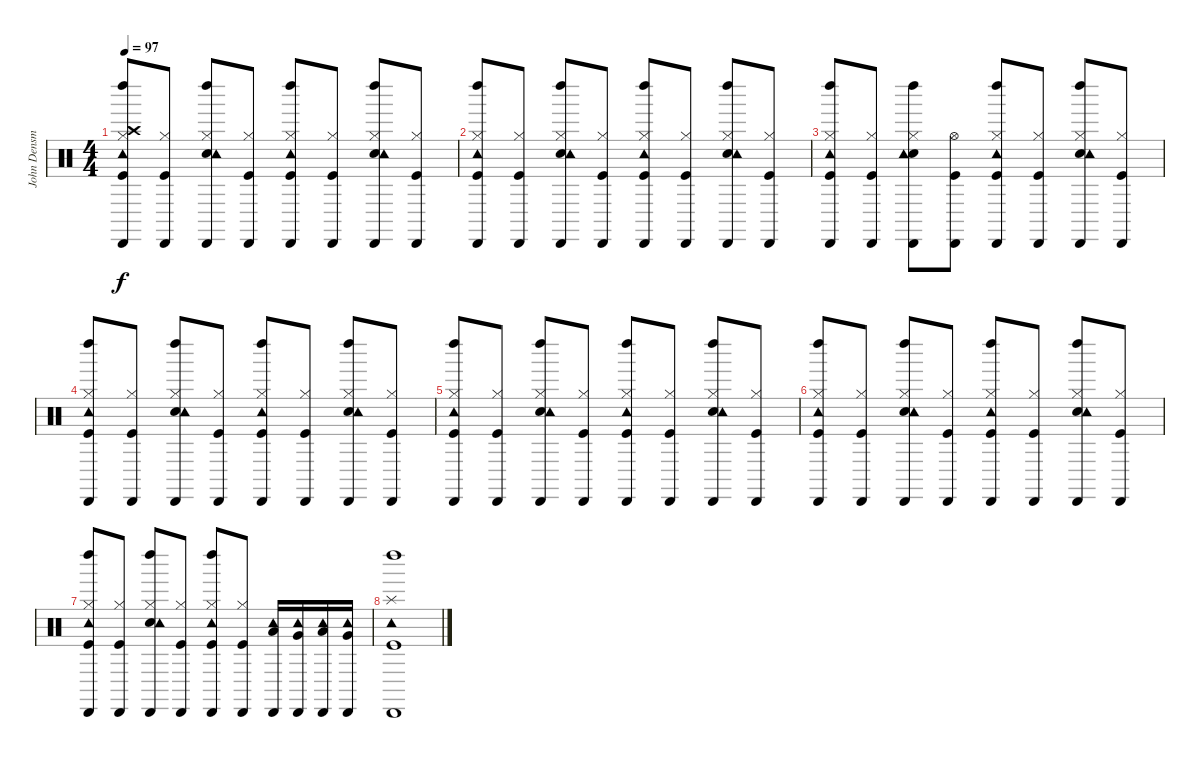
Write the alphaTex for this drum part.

\track ("John Densmore" "John Densm") {instrument percussion}
\staff {score}
\articulation defaults
\ts (4 4)
\tempo 97
\clef neutral
\ks c
("Kick (hit)" "Hi-Hat (closed)" "Crash high (hit)" "Tambourine (hit)" "Left Maraca (hit)" "Cabasa (hit)").8{dy f} ("Kick (hit)" "Hi-Hat (closed)" "Cabasa (hit)").8 ("Snare (hit) 2" "Hi-Hat (closed)" "Tambourine (hit)" "Left Maraca (hit)" "Cabasa (hit)").8 ("Kick (hit)" "Hi-Hat (closed)" "Cabasa (hit)").8 ("Kick (hit)" "Hi-Hat (closed)" "Tambourine (hit)" "Left Maraca (hit)" "Cabasa (hit)").8 ("Kick (hit)" "Hi-Hat (closed)" "Cabasa (hit)").8 ("Snare (hit) 2" "Hi-Hat (closed)" "Tambourine (hit)" "Left Maraca (hit)" "Cabasa (hit)").8 ("Kick (hit)" "Hi-Hat (closed)" "Cabasa (hit)").8 |
("Kick (hit)" "Hi-Hat (closed)" "Tambourine (hit)" "Left Maraca (hit)" "Cabasa (hit)").8 ("Kick (hit)" "Hi-Hat (closed)" "Cabasa (hit)").8 ("Snare (hit) 2" "Hi-Hat (closed)" "Tambourine (hit)" "Left Maraca (hit)" "Cabasa (hit)").8 ("Kick (hit)" "Hi-Hat (closed)" "Cabasa (hit)").8 ("Kick (hit)" "Hi-Hat (closed)" "Tambourine (hit)" "Left Maraca (hit)" "Cabasa (hit)").8 ("Kick (hit)" "Hi-Hat (closed)" "Cabasa (hit)").8 ("Snare (hit) 2" "Hi-Hat (closed)" "Tambourine (hit)" "Left Maraca (hit)" "Cabasa (hit)").8 ("Kick (hit)" "Hi-Hat (closed)" "Cabasa (hit)").8 |
("Kick (hit)" "Hi-Hat (closed)" "Tambourine (hit)" "Left Maraca (hit)" "Cabasa (hit)").8 ("Kick (hit)" "Hi-Hat (closed)" "Cabasa (hit)").8 ("Snare (hit) 2" "Hi-Hat (closed)" "Tambourine (hit)" "Left Maraca (hit)" "Cabasa (hit)").8 ("Kick (hit)" "Hi-Hat (open)" "Cabasa (hit)").8 ("Kick (hit)" "Hi-Hat (closed)" "Tambourine (hit)" "Left Maraca (hit)" "Cabasa (hit)").8 ("Kick (hit)" "Hi-Hat (closed)" "Cabasa (hit)").8 ("Snare (hit) 2" "Hi-Hat (closed)" "Tambourine (hit)" "Left Maraca (hit)" "Cabasa (hit)").8 ("Kick (hit)" "Hi-Hat (closed)" "Cabasa (hit)").8 |
("Kick (hit)" "Hi-Hat (closed)" "Tambourine (hit)" "Left Maraca (hit)" "Cabasa (hit)").8 ("Kick (hit)" "Hi-Hat (closed)" "Cabasa (hit)").8 ("Snare (hit) 2" "Hi-Hat (closed)" "Tambourine (hit)" "Left Maraca (hit)" "Cabasa (hit)").8 ("Kick (hit)" "Hi-Hat (closed)" "Cabasa (hit)").8 ("Kick (hit)" "Hi-Hat (closed)" "Tambourine (hit)" "Left Maraca (hit)" "Cabasa (hit)").8 ("Kick (hit)" "Hi-Hat (closed)" "Cabasa (hit)").8 ("Snare (hit) 2" "Hi-Hat (closed)" "Tambourine (hit)" "Left Maraca (hit)" "Cabasa (hit)").8 ("Kick (hit)" "Hi-Hat (closed)" "Cabasa (hit)").8 |
("Kick (hit)" "Hi-Hat (closed)" "Tambourine (hit)" "Left Maraca (hit)" "Cabasa (hit)").8 ("Kick (hit)" "Hi-Hat (closed)" "Cabasa (hit)").8 ("Snare (hit) 2" "Hi-Hat (closed)" "Tambourine (hit)" "Left Maraca (hit)" "Cabasa (hit)").8 ("Kick (hit)" "Hi-Hat (closed)" "Cabasa (hit)").8 ("Kick (hit)" "Hi-Hat (closed)" "Tambourine (hit)" "Left Maraca (hit)" "Cabasa (hit)").8 ("Kick (hit)" "Hi-Hat (closed)" "Cabasa (hit)").8 ("Snare (hit) 2" "Hi-Hat (closed)" "Tambourine (hit)" "Left Maraca (hit)" "Cabasa (hit)").8 ("Kick (hit)" "Hi-Hat (closed)" "Cabasa (hit)").8 |
("Kick (hit)" "Hi-Hat (closed)" "Tambourine (hit)" "Left Maraca (hit)" "Cabasa (hit)").8 ("Kick (hit)" "Hi-Hat (closed)" "Cabasa (hit)").8 ("Snare (hit) 2" "Hi-Hat (closed)" "Tambourine (hit)" "Left Maraca (hit)" "Cabasa (hit)").8 ("Kick (hit)" "Hi-Hat (closed)" "Cabasa (hit)").8 ("Kick (hit)" "Hi-Hat (closed)" "Tambourine (hit)" "Left Maraca (hit)" "Cabasa (hit)").8 ("Kick (hit)" "Hi-Hat (closed)" "Cabasa (hit)").8 ("Snare (hit) 2" "Hi-Hat (closed)" "Tambourine (hit)" "Left Maraca (hit)" "Cabasa (hit)").8 ("Kick (hit)" "Hi-Hat (closed)" "Cabasa (hit)").8 |
("Kick (hit)" "Hi-Hat (closed)" "Tambourine (hit)" "Left Maraca (hit)" "Cabasa (hit)").8 ("Kick (hit)" "Hi-Hat (closed)" "Cabasa (hit)").8 ("Snare (hit) 2" "Hi-Hat (closed)" "Tambourine (hit)" "Left Maraca (hit)" "Cabasa (hit)").8 ("Kick (hit)" "Hi-Hat (closed)" "Cabasa (hit)").8 ("Kick (hit)" "Hi-Hat (closed)" "Tambourine (hit)" "Left Maraca (hit)" "Cabasa (hit)").8 ("Kick (hit)" "Hi-Hat (closed)" "Cabasa (hit)").8 ("Tambourine (hit)" "Low Tom (hit)" "Cabasa (hit)").16 ("Tambourine (hit)" "Very Low Tom (hit)" "Cabasa (hit)").16 ("Tambourine (hit)" "Low Tom (hit)" "Cabasa (hit)").16 ("Tambourine (hit)" "Very Low Tom (hit)" "Cabasa (hit)").16 |
("Kick (hit)" "Splash (hit)" "Tambourine (hit)" "Left Maraca (hit)" "Cabasa (hit)").1
